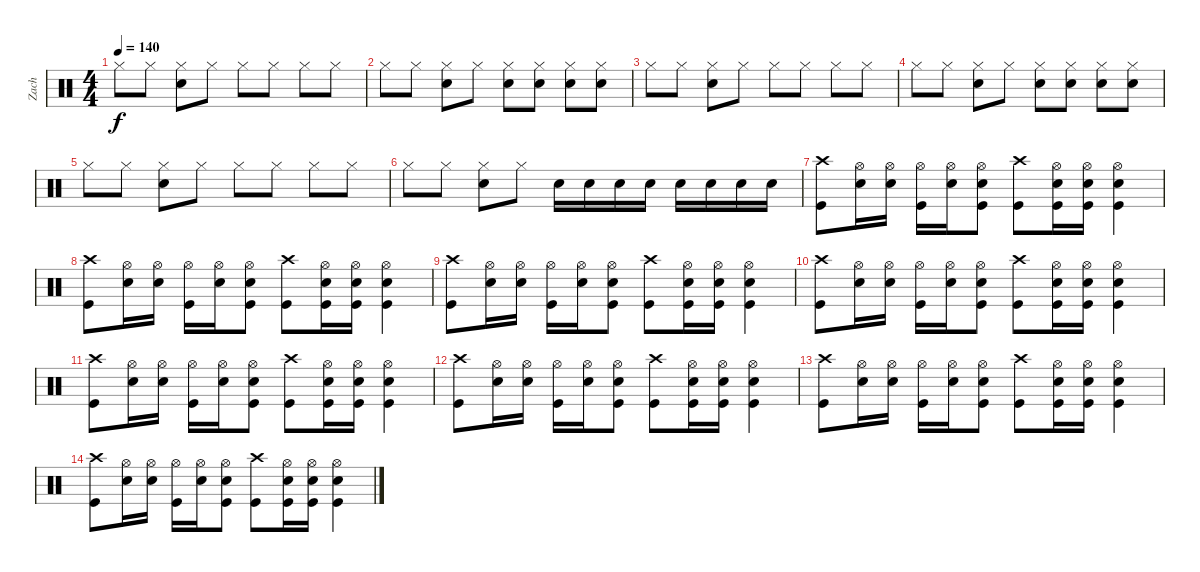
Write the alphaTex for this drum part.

\track ("Zach" "Zach") {instrument percussion}
\staff {score}
\articulation defaults
\ts (4 4)
\tempo 140
\clef neutral
\ks c "Hi-Hat (closed)".8{dy f} "Hi-Hat (closed)".8
("Hi-Hat (closed)" "Snare (hit) 2").8 "Hi-Hat (closed)".8 "Hi-Hat (closed)".8 "Hi-Hat (closed)".8 "Hi-Hat (closed)".8 "Hi-Hat (closed)".8 |
"Hi-Hat (closed)".8 "Hi-Hat (closed)".8 ("Hi-Hat (closed)" "Snare (hit) 2").8 "Hi-Hat (closed)".8 ("Hi-Hat (closed)" "Snare (hit) 2").8 ("Hi-Hat (closed)" "Snare (hit) 2").8 ("Hi-Hat (closed)" "Snare (hit) 2").8 ("Hi-Hat (closed)" "Snare (hit) 2").8 |
"Hi-Hat (closed)".8 "Hi-Hat (closed)".8 ("Hi-Hat (closed)" "Snare (hit) 2").8 "Hi-Hat (closed)".8 "Hi-Hat (closed)".8 "Hi-Hat (closed)".8 "Hi-Hat (closed)".8 "Hi-Hat (closed)".8 |
"Hi-Hat (closed)".8 "Hi-Hat (closed)".8 ("Hi-Hat (closed)" "Snare (hit) 2").8 "Hi-Hat (closed)".8 ("Hi-Hat (closed)" "Snare (hit) 2").8 ("Hi-Hat (closed)" "Snare (hit) 2").8 ("Hi-Hat (closed)" "Snare (hit) 2").8 ("Hi-Hat (closed)" "Snare (hit) 2").8 |
"Hi-Hat (closed)".8 "Hi-Hat (closed)".8 ("Hi-Hat (closed)" "Snare (hit) 2").8 "Hi-Hat (closed)".8 "Hi-Hat (closed)".8 "Hi-Hat (closed)".8 "Hi-Hat (closed)".8 "Hi-Hat (closed)".8 |
"Hi-Hat (closed)".8 "Hi-Hat (closed)".8 ("Hi-Hat (closed)" "Snare (hit) 2").8 "Hi-Hat (closed)".8 "Snare (hit) 2".16 "Snare (hit) 2".16 "Snare (hit) 2".16 "Snare (hit) 2".16 "Snare (hit) 2".16 "Snare (hit) 2".16 "Snare (hit) 2".16 "Snare (hit) 2".16 |
("Kick (hit)" "Crash high (hit)").8 ("Snare (hit) 2" "Hi-Hat (open)").16 ("Snare (hit) 2" "Hi-Hat (open)").16 ("Kick (hit)" "Hi-Hat (open)").16 ("Snare (hit) 2" "Hi-Hat (open)").16 ("Kick (hit)" "Snare (hit) 2" "Hi-Hat (open)").8 ("Kick (hit)" "Crash high (hit)").8 ("Kick (hit)" "Snare (hit) 2" "Hi-Hat (open)").16 ("Kick (hit)" "Snare (hit) 2" "Hi-Hat (open)").16 ("Kick (hit)" "Snare (hit) 2" "Hi-Hat (open)").4 |
("Kick (hit)" "Crash high (hit)").8 ("Snare (hit) 2" "Hi-Hat (open)").16 ("Snare (hit) 2" "Hi-Hat (open)").16 ("Kick (hit)" "Hi-Hat (open)").16 ("Snare (hit) 2" "Hi-Hat (open)").16 ("Kick (hit)" "Snare (hit) 2" "Hi-Hat (open)").8 ("Kick (hit)" "Crash high (hit)").8 ("Kick (hit)" "Snare (hit) 2" "Hi-Hat (open)").16 ("Kick (hit)" "Snare (hit) 2" "Hi-Hat (open)").16 ("Kick (hit)" "Snare (hit) 2" "Hi-Hat (open)").4 |
("Kick (hit)" "Crash high (hit)").8 ("Snare (hit) 2" "Hi-Hat (open)").16 ("Snare (hit) 2" "Hi-Hat (open)").16 ("Kick (hit)" "Hi-Hat (open)").16 ("Snare (hit) 2" "Hi-Hat (open)").16 ("Kick (hit)" "Snare (hit) 2" "Hi-Hat (open)").8 ("Kick (hit)" "Crash high (hit)").8 ("Kick (hit)" "Snare (hit) 2" "Hi-Hat (open)").16 ("Kick (hit)" "Snare (hit) 2" "Hi-Hat (open)").16 ("Kick (hit)" "Snare (hit) 2" "Hi-Hat (open)").4 |
("Kick (hit)" "Crash high (hit)").8 ("Snare (hit) 2" "Hi-Hat (open)").16 ("Snare (hit) 2" "Hi-Hat (open)").16 ("Kick (hit)" "Hi-Hat (open)").16 ("Snare (hit) 2" "Hi-Hat (open)").16 ("Kick (hit)" "Snare (hit) 2" "Hi-Hat (open)").8 ("Kick (hit)" "Crash high (hit)").8 ("Kick (hit)" "Snare (hit) 2" "Hi-Hat (open)").16 ("Kick (hit)" "Snare (hit) 2" "Hi-Hat (open)").16 ("Kick (hit)" "Snare (hit) 2" "Hi-Hat (open)").4 |
("Kick (hit)" "Crash high (hit)").8 ("Snare (hit) 2" "Hi-Hat (open)").16 ("Snare (hit) 2" "Hi-Hat (open)").16 ("Kick (hit)" "Hi-Hat (open)").16 ("Snare (hit) 2" "Hi-Hat (open)").16 ("Kick (hit)" "Snare (hit) 2" "Hi-Hat (open)").8 ("Kick (hit)" "Crash high (hit)").8 ("Kick (hit)" "Snare (hit) 2" "Hi-Hat (open)").16 ("Kick (hit)" "Snare (hit) 2" "Hi-Hat (open)").16 ("Kick (hit)" "Snare (hit) 2" "Hi-Hat (open)").4 |
("Kick (hit)" "Crash high (hit)").8 ("Snare (hit) 2" "Hi-Hat (open)").16 ("Snare (hit) 2" "Hi-Hat (open)").16 ("Kick (hit)" "Hi-Hat (open)").16 ("Snare (hit) 2" "Hi-Hat (open)").16 ("Kick (hit)" "Snare (hit) 2" "Hi-Hat (open)").8 ("Kick (hit)" "Crash high (hit)").8 ("Kick (hit)" "Snare (hit) 2" "Hi-Hat (open)").16 ("Kick (hit)" "Snare (hit) 2" "Hi-Hat (open)").16 ("Kick (hit)" "Snare (hit) 2" "Hi-Hat (open)").4 |
("Kick (hit)" "Crash high (hit)").8 ("Snare (hit) 2" "Hi-Hat (open)").16 ("Snare (hit) 2" "Hi-Hat (open)").16 ("Kick (hit)" "Hi-Hat (open)").16 ("Snare (hit) 2" "Hi-Hat (open)").16 ("Kick (hit)" "Snare (hit) 2" "Hi-Hat (open)").8 ("Kick (hit)" "Crash high (hit)").8 ("Kick (hit)" "Snare (hit) 2" "Hi-Hat (open)").16 ("Kick (hit)" "Snare (hit) 2" "Hi-Hat (open)").16 ("Kick (hit)" "Snare (hit) 2" "Hi-Hat (open)").4 |
("Kick (hit)" "Crash high (hit)").8 ("Snare (hit) 2" "Hi-Hat (open)").16 ("Snare (hit) 2" "Hi-Hat (open)").16 ("Kick (hit)" "Hi-Hat (open)").16 ("Snare (hit) 2" "Hi-Hat (open)").16 ("Kick (hit)" "Snare (hit) 2" "Hi-Hat (open)").8 ("Kick (hit)" "Crash high (hit)").8 ("Kick (hit)" "Snare (hit) 2" "Hi-Hat (open)").16 ("Kick (hit)" "Snare (hit) 2" "Hi-Hat (open)").16 ("Kick (hit)" "Snare (hit) 2" "Hi-Hat (open)").4
